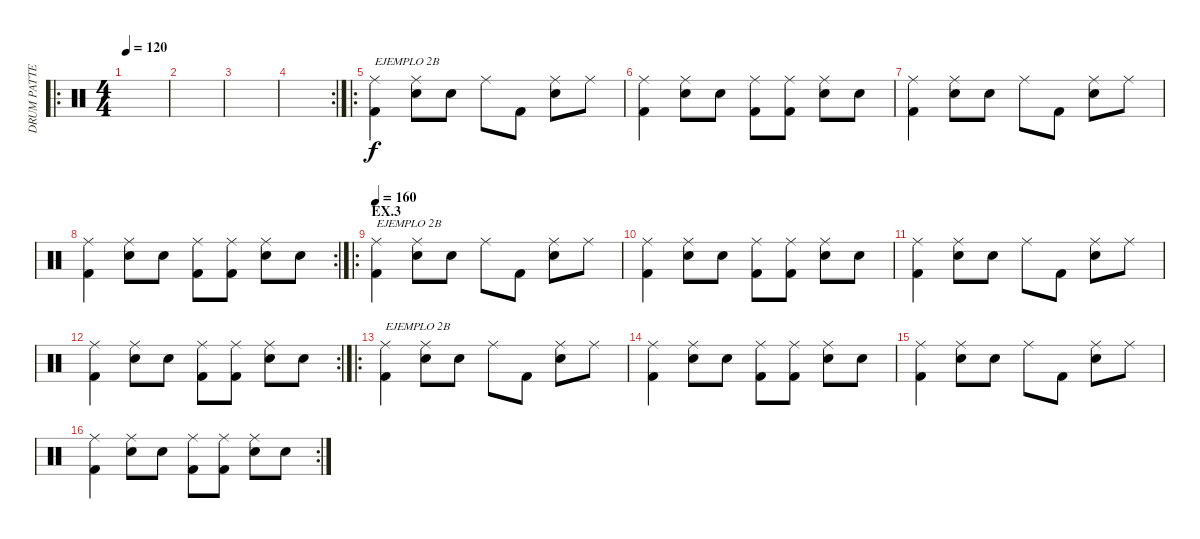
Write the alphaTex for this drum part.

\track ("DRUM PATTERN" "DRUM PATTE") {instrument percussion}
\staff {score}
\articulation defaults
\ro
\ts (4 4)
\tempo 120
\clef neutral
\ks c
|
|
|
\rc 2
|
\ro
("Ride (middle)" "Kick (hit) 2").4{txt "EJEMPLO 2B"} ("Ride (middle)" "Snare (hit) 2").8 "Snare (hit) 2".8 "Ride (middle)".8 "Kick (hit) 2".8 ("Ride (middle)" "Snare (hit) 2").8 "Ride (middle)".8 |
("Ride (middle)" "Kick (hit) 2").4 ("Ride (middle)" "Snare (hit) 2").8 "Snare (hit) 2".8 ("Ride (middle)" "Kick (hit) 2").8 ("Ride (middle)" "Kick (hit) 2").8 ("Ride (middle)" "Snare (hit) 2").8 "Snare (hit) 2".8 |
("Ride (middle)" "Kick (hit) 2").4 ("Ride (middle)" "Snare (hit) 2").8 "Snare (hit) 2".8 "Ride (middle)".8 "Kick (hit) 2".8 ("Ride (middle)" "Snare (hit) 2").8 "Ride (middle)".8 |
\rc 2
("Ride (middle)" "Kick (hit) 2").4 ("Ride (middle)" "Snare (hit) 2").8 "Snare (hit) 2".8 ("Ride (middle)" "Kick (hit) 2").8 ("Ride (middle)" "Kick (hit) 2").8 ("Ride (middle)" "Snare (hit) 2").8 "Snare (hit) 2".8 |
\ro
\section ("" "EX.3")
\tempo 160
("Ride (middle)" "Kick (hit) 2").4{txt "EJEMPLO 2B"} ("Ride (middle)" "Snare (hit) 2").8 "Snare (hit) 2".8 "Ride (middle)".8 "Kick (hit) 2".8 ("Ride (middle)" "Snare (hit) 2").8 "Ride (middle)".8 |
("Ride (middle)" "Kick (hit) 2").4 ("Ride (middle)" "Snare (hit) 2").8 "Snare (hit) 2".8 ("Ride (middle)" "Kick (hit) 2").8 ("Ride (middle)" "Kick (hit) 2").8 ("Ride (middle)" "Snare (hit) 2").8 "Snare (hit) 2".8 |
("Ride (middle)" "Kick (hit) 2").4 ("Ride (middle)" "Snare (hit) 2").8 "Snare (hit) 2".8 "Ride (middle)".8 "Kick (hit) 2".8 ("Ride (middle)" "Snare (hit) 2").8 "Ride (middle)".8 |
\rc 2
("Ride (middle)" "Kick (hit) 2").4 ("Ride (middle)" "Snare (hit) 2").8 "Snare (hit) 2".8 ("Ride (middle)" "Kick (hit) 2").8 ("Ride (middle)" "Kick (hit) 2").8 ("Ride (middle)" "Snare (hit) 2").8 "Snare (hit) 2".8 |
\ro
("Ride (middle)" "Kick (hit) 2").4{txt "EJEMPLO 2B"} ("Ride (middle)" "Snare (hit) 2").8 "Snare (hit) 2".8 "Ride (middle)".8 "Kick (hit) 2".8 ("Ride (middle)" "Snare (hit) 2").8 "Ride (middle)".8 |
("Ride (middle)" "Kick (hit) 2").4 ("Ride (middle)" "Snare (hit) 2").8 "Snare (hit) 2".8 ("Ride (middle)" "Kick (hit) 2").8 ("Ride (middle)" "Kick (hit) 2").8 ("Ride (middle)" "Snare (hit) 2").8 "Snare (hit) 2".8 |
("Ride (middle)" "Kick (hit) 2").4 ("Ride (middle)" "Snare (hit) 2").8 "Snare (hit) 2".8 "Ride (middle)".8 "Kick (hit) 2".8 ("Ride (middle)" "Snare (hit) 2").8 "Ride (middle)".8 |
\rc 2
("Ride (middle)" "Kick (hit) 2").4 ("Ride (middle)" "Snare (hit) 2").8 "Snare (hit) 2".8 ("Ride (middle)" "Kick (hit) 2").8 ("Ride (middle)" "Kick (hit) 2").8 ("Ride (middle)" "Snare (hit) 2").8 "Snare (hit) 2".8
